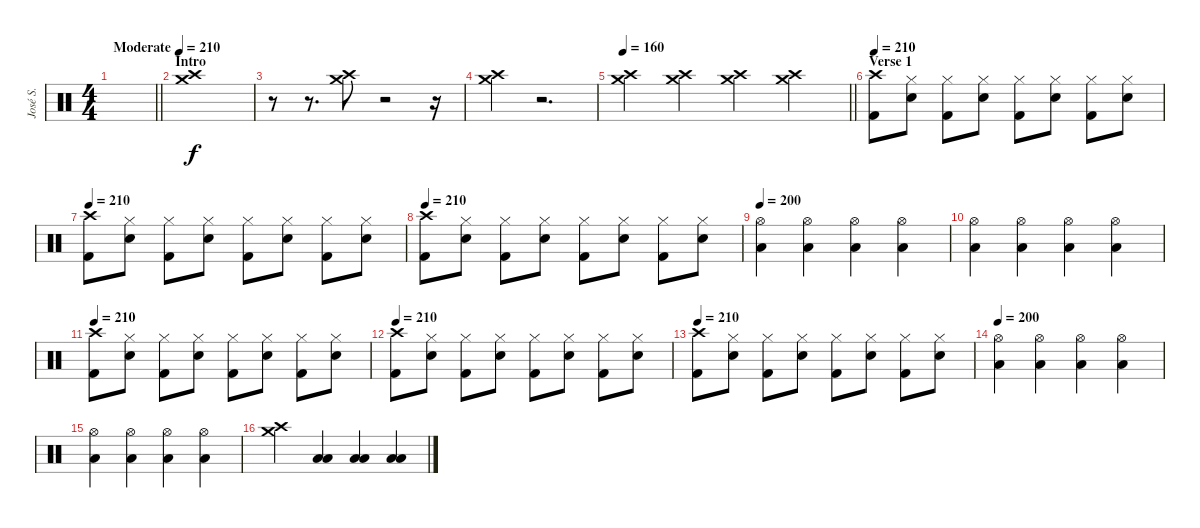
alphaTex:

\track ("José S." "José S.") {instrument percussion}
\staff {score}
\articulation defaults
\ts (4 4)
\tempo (210 "Moderate")
\clef neutral
\barLineRight lightlight
\ks c
|
\section ("" "Intro")
("Crash high (hit)" "Crash medium (hit)").1 |
r.8 r.8{d} ("Crash high (hit)" "Crash medium (hit)").8 r.2 r.16 |
("Crash high (hit)" "Crash medium (hit)").4 r.2{d} |
\tempo 160
\barLineRight lightlight
("Crash high (hit)" "Crash medium (hit)").4 ("Crash high (hit)" "Crash medium (hit)").4 ("Crash high (hit)" "Crash medium (hit)").4 ("Crash high (hit)" "Crash medium (hit)").4 |
\section ("" "Verse 1")
\tempo 210
("Crash high (hit)" "Kick (hit) 2").8 ("Hi-Hat (closed)" "Electric Snare (hit)").8 ("Hi-Hat (closed)" "Kick (hit) 2").8 ("Hi-Hat (closed)" "Electric Snare (hit)").8 ("Hi-Hat (closed)" "Kick (hit) 2").8 ("Hi-Hat (closed)" "Electric Snare (hit)").8 ("Hi-Hat (closed)" "Kick (hit) 2").8 ("Hi-Hat (closed)" "Electric Snare (hit)").8 |
\tempo 210
("Crash high (hit)" "Kick (hit) 2").8 ("Hi-Hat (closed)" "Electric Snare (hit)").8 ("Hi-Hat (closed)" "Kick (hit) 2").8 ("Hi-Hat (closed)" "Electric Snare (hit)").8 ("Hi-Hat (closed)" "Kick (hit) 2").8 ("Hi-Hat (closed)" "Electric Snare (hit)").8 ("Hi-Hat (closed)" "Kick (hit) 2").8 ("Hi-Hat (closed)" "Electric Snare (hit)").8 |
\tempo 210
("Crash high (hit)" "Kick (hit) 2").8 ("Hi-Hat (closed)" "Electric Snare (hit)").8 ("Hi-Hat (closed)" "Kick (hit) 2").8 ("Hi-Hat (closed)" "Electric Snare (hit)").8 ("Hi-Hat (closed)" "Kick (hit) 2").8 ("Hi-Hat (closed)" "Electric Snare (hit)").8 ("Hi-Hat (closed)" "Kick (hit) 2").8 ("Hi-Hat (closed)" "Electric Snare (hit)").8 |
\tempo 200
("Hi-Hat (open)" "Low Floor Tom (hit)").4 ("Hi-Hat (open)" "Low Floor Tom (hit)").4 ("Hi-Hat (open)" "Low Floor Tom (hit)").4 ("Hi-Hat (open)" "Low Floor Tom (hit)").4 |
("Hi-Hat (open)" "Low Floor Tom (hit)").4 ("Hi-Hat (open)" "Low Floor Tom (hit)").4 ("Hi-Hat (open)" "Low Floor Tom (hit)").4 ("Hi-Hat (open)" "Low Floor Tom (hit)").4 |
\tempo 210
("Crash high (hit)" "Kick (hit) 2").8 ("Hi-Hat (closed)" "Electric Snare (hit)").8 ("Hi-Hat (closed)" "Kick (hit) 2").8 ("Hi-Hat (closed)" "Electric Snare (hit)").8 ("Hi-Hat (closed)" "Kick (hit) 2").8 ("Hi-Hat (closed)" "Electric Snare (hit)").8 ("Hi-Hat (closed)" "Kick (hit) 2").8 ("Hi-Hat (closed)" "Electric Snare (hit)").8 |
\tempo 210
("Crash high (hit)" "Kick (hit) 2").8 ("Hi-Hat (closed)" "Electric Snare (hit)").8 ("Hi-Hat (closed)" "Kick (hit) 2").8 ("Hi-Hat (closed)" "Electric Snare (hit)").8 ("Hi-Hat (closed)" "Kick (hit) 2").8 ("Hi-Hat (closed)" "Electric Snare (hit)").8 ("Hi-Hat (closed)" "Kick (hit) 2").8 ("Hi-Hat (closed)" "Electric Snare (hit)").8 |
\tempo 210
("Crash high (hit)" "Kick (hit) 2").8 ("Hi-Hat (closed)" "Electric Snare (hit)").8 ("Hi-Hat (closed)" "Kick (hit) 2").8 ("Hi-Hat (closed)" "Electric Snare (hit)").8 ("Hi-Hat (closed)" "Kick (hit) 2").8 ("Hi-Hat (closed)" "Electric Snare (hit)").8 ("Hi-Hat (closed)" "Kick (hit) 2").8 ("Hi-Hat (closed)" "Electric Snare (hit)").8 |
\tempo 200
("Hi-Hat (open)" "Low Floor Tom (hit)").4 ("Hi-Hat (open)" "Low Floor Tom (hit)").4 ("Hi-Hat (open)" "Low Floor Tom (hit)").4 ("Hi-Hat (open)" "Low Floor Tom (hit)").4 |
("Hi-Hat (open)" "Low Floor Tom (hit)").4 ("Hi-Hat (open)" "Low Floor Tom (hit)").4 ("Hi-Hat (open)" "Low Floor Tom (hit)").4 ("Hi-Hat (open)" "Low Floor Tom (hit)").4 |
("Crash high (hit)" "Crash medium (hit)").4 ("Low Tom (hit)" "Low Floor Tom (hit)").4 ("Low Tom (hit)" "Low Floor Tom (hit)").4 ("Low Tom (hit)" "Low Floor Tom (hit)").4
